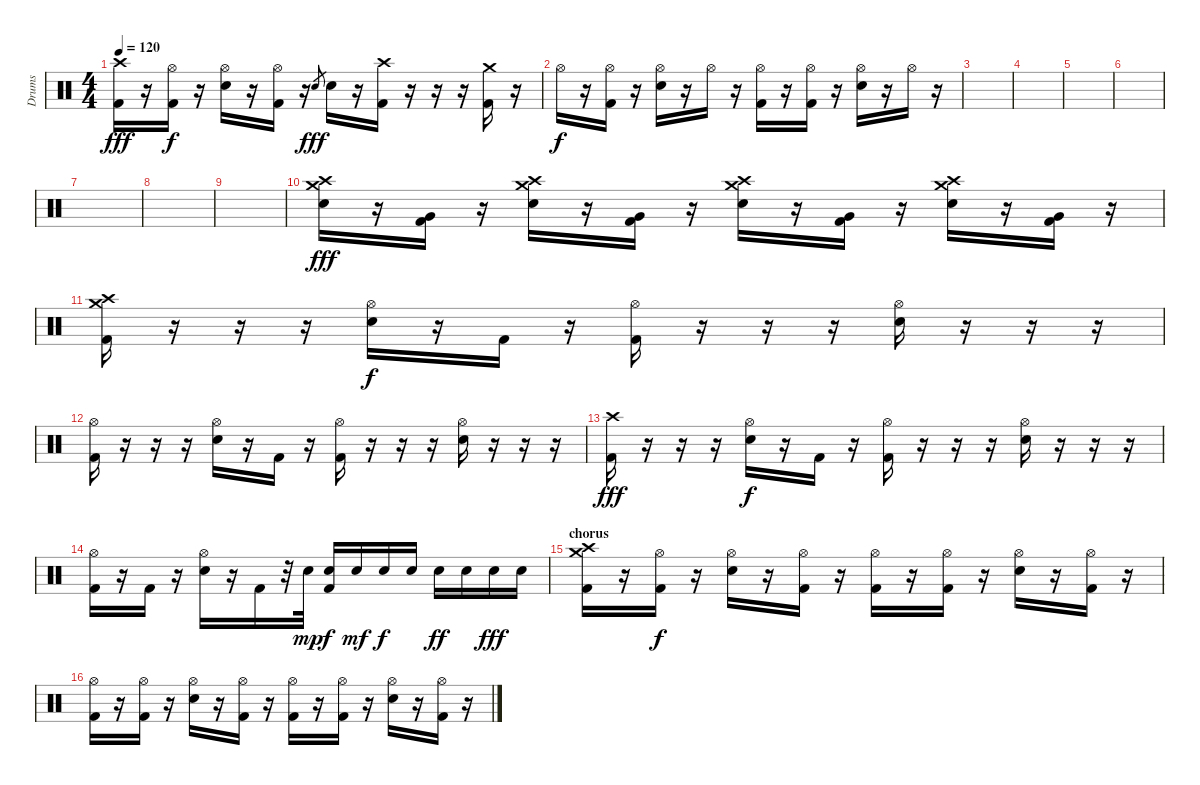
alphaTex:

\track ("Drums" "Drums") {instrument percussion}
\staff {score}
\articulation defaults
\ts (4 4)
\tempo 120
\clef neutral
\ks c
("Crash high (hit)" "Kick (hit) 2").16{dy fff} r.16 ("Hi-Hat (open)" "Kick (hit) 2").16{dy f} r.16 ("Hi-Hat (open)" "Electric Snare (hit)").16 r.16 ("Hi-Hat (open)" "Kick (hit) 2").16 r.16 "Electric Snare (hit)".8{gr dy fff} "Electric Snare (hit)".16 r.16 ("Crash high (hit)" "Kick (hit) 2").16 r.16 r.16 r.16 ("Crash medium (hit)" "Kick (hit) 2").16 r.16 |
"Hi-Hat (open)".16{dy f} r.16 ("Hi-Hat (open)" "Kick (hit) 2").16 r.16 ("Hi-Hat (open)" "Electric Snare (hit)").16 r.16 "Hi-Hat (open)".16 r.16 ("Hi-Hat (open)" "Kick (hit) 2").16 r.16 ("Hi-Hat (open)" "Kick (hit) 2").16 r.16 ("Hi-Hat (open)" "Electric Snare (hit)").16 r.16 "Hi-Hat (open)".16 r.16 |
|
|
|
|
|
|
|
("Crash medium (hit)" "Crash high (hit)" "Electric Snare (hit)").16{dy fff volume 16} r.16 ("Very Low Tom (hit)" "Kick (hit) 2").16 r.16 ("Crash medium (hit)" "Crash high (hit)" "Electric Snare (hit)").16 r.16 ("Very Low Tom (hit)" "Kick (hit) 2").16 r.16 ("Crash medium (hit)" "Crash high (hit)" "Electric Snare (hit)").16 r.16 ("Very Low Tom (hit)" "Kick (hit) 2").16 r.16 ("Crash medium (hit)" "Crash high (hit)" "Electric Snare (hit)").16 r.16 ("Very Low Tom (hit)" "Kick (hit) 2").16 r.16 |
("Crash high (hit)" "Crash medium (hit)" "Kick (hit) 2").16{volume 14} r.16 r.16 r.16 ("Hi-Hat (open)" "Electric Snare (hit)").16{dy f} r.16 "Kick (hit) 2".16 r.16 ("Hi-Hat (open)" "Kick (hit) 2").16 r.16 r.16 r.16 ("Hi-Hat (open)" "Electric Snare (hit)").16 r.16 r.16 r.16 |
("Hi-Hat (open)" "Kick (hit) 2").16 r.16 r.16 r.16 ("Hi-Hat (open)" "Electric Snare (hit)").16 r.16 "Kick (hit) 2".16 r.16 ("Hi-Hat (open)" "Kick (hit) 2").16 r.16 r.16 r.16 ("Hi-Hat (open)" "Electric Snare (hit)").16 r.16 r.16 r.16 |
("Crash high (hit)" "Kick (hit) 2").16{dy fff} r.16 r.16 r.16 ("Hi-Hat (open)" "Electric Snare (hit)").16{dy f} r.16 "Kick (hit) 2".16 r.16 ("Hi-Hat (open)" "Kick (hit) 2").16 r.16 r.16 r.16 ("Hi-Hat (open)" "Electric Snare (hit)").16 r.16 r.16 r.16 |
("Hi-Hat (open)" "Kick (hit) 2").16 r.16 "Kick (hit) 2".16 r.16 ("Hi-Hat (open)" "Electric Snare (hit)").16 r.16 "Kick (hit) 2".16 r.32 "Electric Snare (hit)".32{dy mp} ("Electric Snare (hit)" "Kick (hit) 2").16{dy f} "Electric Snare (hit)".16{dy mf} "Electric Snare (hit)".16{dy f} "Electric Snare (hit)".16 "Electric Snare (hit)".16{dy ff} "Electric Snare (hit)".16 "Electric Snare (hit)".16{dy fff} "Electric Snare (hit)".16 |
\section ("" "chorus")
("Crash high (hit)" "Crash medium (hit)" "Kick (hit) 2").16 r.16 ("Hi-Hat (open)" "Kick (hit) 2").16{dy f} r.16 ("Hi-Hat (open)" "Electric Snare (hit)").16 r.16 ("Hi-Hat (open)" "Kick (hit) 2").16 r.16 ("Hi-Hat (open)" "Kick (hit) 2").16 r.16 ("Hi-Hat (open)" "Kick (hit) 2").16 r.16 ("Hi-Hat (open)" "Electric Snare (hit)").16 r.16 ("Hi-Hat (open)" "Kick (hit) 2").16 r.16 |
("Hi-Hat (open)" "Kick (hit) 2").16 r.16 ("Hi-Hat (open)" "Kick (hit) 2").16 r.16 ("Hi-Hat (open)" "Electric Snare (hit)").16 r.16 ("Hi-Hat (open)" "Kick (hit) 2").16 r.16 ("Hi-Hat (open)" "Kick (hit) 2").16 r.16 ("Hi-Hat (open)" "Kick (hit) 2").16 r.16 ("Hi-Hat (open)" "Electric Snare (hit)").16 r.16 ("Hi-Hat (open)" "Kick (hit) 2").16 r.16
